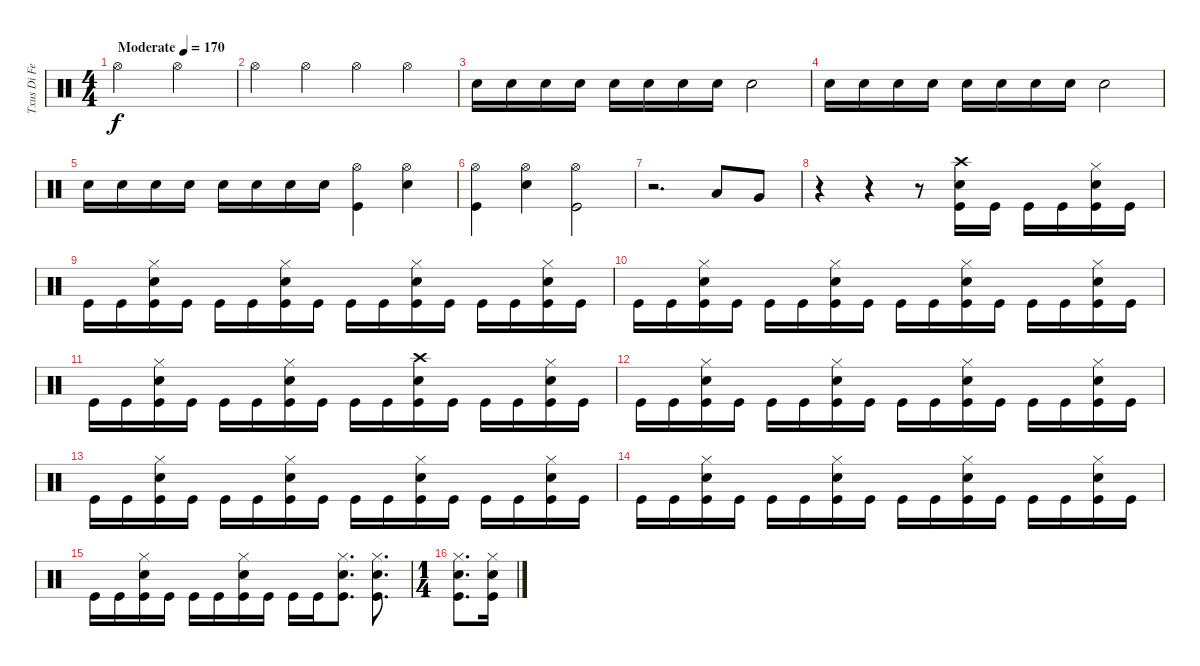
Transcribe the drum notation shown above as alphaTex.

\track ("Txus Di Fellatio" "Txus Di Fe") {instrument percussion}
\staff {score}
\articulation defaults
\ts (4 4)
\tempo (170 "Moderate")
\clef neutral
\ks c "Hi-Hat (open)".2{dy f} "Hi-Hat (open)".2
|
"Hi-Hat (open)".4 "Hi-Hat (open)".4 "Hi-Hat (open)".4 "Hi-Hat (open)".4 |
"Snare (hit) 2".16 "Snare (hit) 2".16 "Snare (hit) 2".16 "Snare (hit) 2".16 "Snare (hit) 2".16 "Snare (hit) 2".16 "Snare (hit) 2".16 "Snare (hit) 2".16 "Snare (hit) 2".2 |
"Snare (hit) 2".16 "Snare (hit) 2".16 "Snare (hit) 2".16 "Snare (hit) 2".16 "Snare (hit) 2".16 "Snare (hit) 2".16 "Snare (hit) 2".16 "Snare (hit) 2".16 "Snare (hit) 2".2 |
"Snare (hit) 2".16 "Snare (hit) 2".16 "Snare (hit) 2".16 "Snare (hit) 2".16 "Snare (hit) 2".16 "Snare (hit) 2".16 "Snare (hit) 2".16 "Snare (hit) 2".16 ("Kick (hit)" "Hi-Hat (open)").4 ("Snare (hit) 2" "Hi-Hat (open)").4 |
("Hi-Hat (open)" "Kick (hit)").4 ("Hi-Hat (open)" "Snare (hit) 2").4 ("Hi-Hat (open)" "Kick (hit)").2 |
r.2{d} "Low Tom (hit)".8 "Very Low Tom (hit)".8 |
r.4 r.4 r.8 ("Crash high (hit)" "Kick (hit)" "Snare (hit) 2").16 "Kick (hit)".16 "Kick (hit)".16 "Kick (hit)".16 ("Hi-Hat (closed)" "Kick (hit)" "Snare (hit) 2").16 "Kick (hit)".16 |
"Kick (hit)".16 "Kick (hit)".16 ("Hi-Hat (closed)" "Kick (hit)" "Snare (hit) 2").16 "Kick (hit)".16 "Kick (hit)".16 "Kick (hit)".16 ("Hi-Hat (closed)" "Kick (hit)" "Snare (hit) 2").16 "Kick (hit)".16 "Kick (hit)".16 "Kick (hit)".16 ("Hi-Hat (closed)" "Kick (hit)" "Snare (hit) 2").16 "Kick (hit)".16 "Kick (hit)".16 "Kick (hit)".16 ("Hi-Hat (closed)" "Kick (hit)" "Snare (hit) 2").16 "Kick (hit)".16 |
"Kick (hit)".16 "Kick (hit)".16 ("Hi-Hat (closed)" "Kick (hit)" "Snare (hit) 2").16 "Kick (hit)".16 "Kick (hit)".16 "Kick (hit)".16 ("Hi-Hat (closed)" "Kick (hit)" "Snare (hit) 2").16 "Kick (hit)".16 "Kick (hit)".16 "Kick (hit)".16 ("Hi-Hat (closed)" "Kick (hit)" "Snare (hit) 2").16 "Kick (hit)".16 "Kick (hit)".16 "Kick (hit)".16 ("Hi-Hat (closed)" "Kick (hit)" "Snare (hit) 2").16 "Kick (hit)".16 |
"Kick (hit)".16 "Kick (hit)".16 ("Hi-Hat (closed)" "Kick (hit)" "Snare (hit) 2").16 "Kick (hit)".16 "Kick (hit)".16 "Kick (hit)".16 ("Hi-Hat (closed)" "Kick (hit)" "Snare (hit) 2").16 "Kick (hit)".16 "Kick (hit)".16 "Kick (hit)".16 ("Crash high (hit)" "Kick (hit)" "Snare (hit) 2").16 "Kick (hit)".16 "Kick (hit)".16 "Kick (hit)".16 ("Hi-Hat (closed)" "Kick (hit)" "Snare (hit) 2").16 "Kick (hit)".16 |
"Kick (hit)".16 "Kick (hit)".16 ("Hi-Hat (closed)" "Kick (hit)" "Snare (hit) 2").16 "Kick (hit)".16 "Kick (hit)".16 "Kick (hit)".16 ("Hi-Hat (closed)" "Kick (hit)" "Snare (hit) 2").16 "Kick (hit)".16 "Kick (hit)".16 "Kick (hit)".16 ("Hi-Hat (closed)" "Kick (hit)" "Snare (hit) 2").16 "Kick (hit)".16 "Kick (hit)".16 "Kick (hit)".16 ("Hi-Hat (closed)" "Kick (hit)" "Snare (hit) 2").16 "Kick (hit)".16 |
"Kick (hit)".16 "Kick (hit)".16 ("Hi-Hat (closed)" "Kick (hit)" "Snare (hit) 2").16 "Kick (hit)".16 "Kick (hit)".16 "Kick (hit)".16 ("Hi-Hat (closed)" "Kick (hit)" "Snare (hit) 2").16 "Kick (hit)".16 "Kick (hit)".16 "Kick (hit)".16 ("Hi-Hat (closed)" "Kick (hit)" "Snare (hit) 2").16 "Kick (hit)".16 "Kick (hit)".16 "Kick (hit)".16 ("Hi-Hat (closed)" "Kick (hit)" "Snare (hit) 2").16 "Kick (hit)".16 |
"Kick (hit)".16 "Kick (hit)".16 ("Hi-Hat (closed)" "Kick (hit)" "Snare (hit) 2").16 "Kick (hit)".16 "Kick (hit)".16 "Kick (hit)".16 ("Hi-Hat (closed)" "Kick (hit)" "Snare (hit) 2").16 "Kick (hit)".16 "Kick (hit)".16 "Kick (hit)".16 ("Hi-Hat (closed)" "Kick (hit)" "Snare (hit) 2").16 "Kick (hit)".16 "Kick (hit)".16 "Kick (hit)".16 ("Hi-Hat (closed)" "Kick (hit)" "Snare (hit) 2").16 "Kick (hit)".16 |
"Kick (hit)".16 "Kick (hit)".16 ("Hi-Hat (closed)" "Kick (hit)" "Snare (hit) 2").16 "Kick (hit)".16 "Kick (hit)".16 "Kick (hit)".16 ("Hi-Hat (closed)" "Kick (hit)" "Snare (hit) 2").16 "Kick (hit)".16 "Kick (hit)".16 "Kick (hit)".16 ("Hi-Hat (closed)" "Kick (hit)" "Snare (hit) 2").8{d} ("Hi-Hat (closed)" "Kick (hit)" "Snare (hit) 2").8{d} |
\ts (1 4)
("Hi-Hat (closed)" "Kick (hit)" "Snare (hit) 2").8{d} ("Hi-Hat (closed)" "Kick (hit)" "Snare (hit) 2").16
